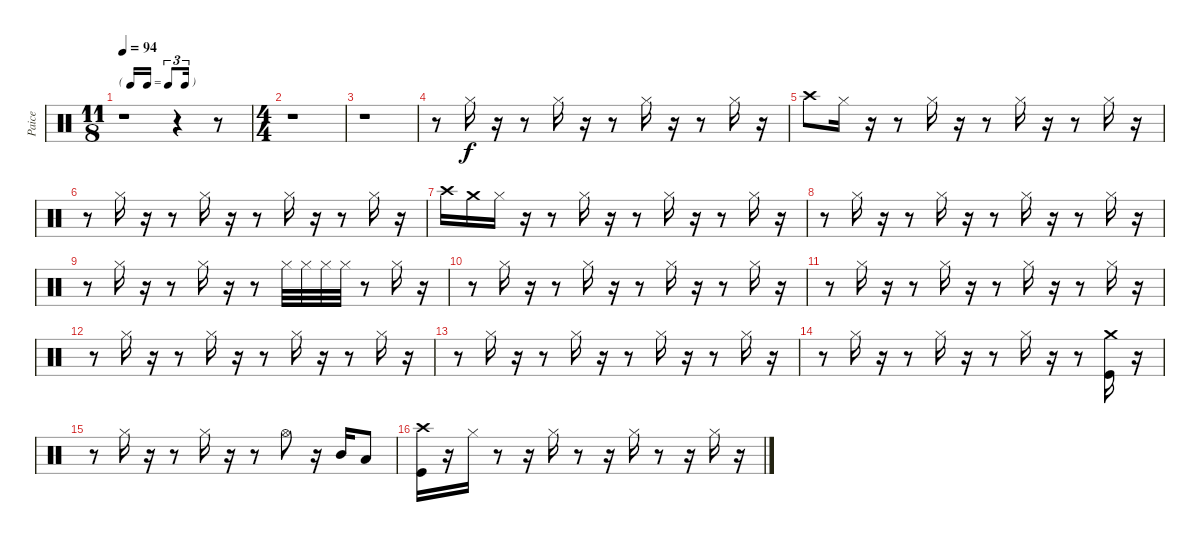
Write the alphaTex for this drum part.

\track ("Paice" "Paice") {instrument percussion}
\staff {score}
\articulation defaults
\ts (11 8)
\tf triplet16th
\tempo 94
\clef neutral
\ks c
r.1{dy f} r.4 r.8 |
\ts (4 4)
r.1 |
r.1 |
r.8 "Hi-Hat (closed)".16 r.16 r.8 "Hi-Hat (closed)".16 r.16 r.8 "Hi-Hat (closed)".16 r.16 r.8 "Hi-Hat (closed)".16 r.16 |
"Crash high (hit)".8 "Hi-Hat (closed)".16 r.16 r.8 "Hi-Hat (closed)".16 r.16 r.8 "Hi-Hat (closed)".16 r.16 r.8 "Hi-Hat (closed)".16 r.16 |
r.8 "Hi-Hat (closed)".16 r.16 r.8 "Hi-Hat (closed)".16 r.16 r.8 "Hi-Hat (closed)".16 r.16 r.8 "Hi-Hat (closed)".16 r.16 |
"Crash high (hit)".16 "Crash medium (hit)".16 "Hi-Hat (closed)".16 r.16 r.8 "Hi-Hat (closed)".16 r.16 r.8 "Hi-Hat (closed)".16 r.16 r.8 "Hi-Hat (closed)".16 r.16 |
r.8 "Hi-Hat (closed)".16 r.16 r.8 "Hi-Hat (closed)".16 r.16 r.8 "Hi-Hat (closed)".16 r.16 r.8 "Hi-Hat (closed)".16 r.16 |
r.8 "Hi-Hat (closed)".16 r.16 r.8 "Hi-Hat (closed)".16 r.16 r.8 "Hi-Hat (closed)".32 "Hi-Hat (closed)".32 "Hi-Hat (closed)".32 "Hi-Hat (closed)".32 r.8 "Hi-Hat (closed)".16 r.16 |
r.8 "Hi-Hat (closed)".16 r.16 r.8 "Hi-Hat (closed)".16 r.16 r.8 "Hi-Hat (closed)".16 r.16 r.8 "Hi-Hat (closed)".16 r.16 |
r.8 "Hi-Hat (closed)".16 r.16 r.8 "Hi-Hat (closed)".16 r.16 r.8 "Hi-Hat (closed)".16 r.16 r.8 "Hi-Hat (closed)".16 r.16 |
r.8 "Hi-Hat (closed)".16 r.16 r.8 "Hi-Hat (closed)".16 r.16 r.8 "Hi-Hat (closed)".16 r.16 r.8 "Hi-Hat (closed)".16 r.16 |
r.8 "Hi-Hat (closed)".16 r.16 r.8 "Hi-Hat (closed)".16 r.16 r.8 "Hi-Hat (closed)".16 r.16 r.8 "Hi-Hat (closed)".16 r.16 |
r.8 "Hi-Hat (closed)".16 r.16 r.8 "Hi-Hat (closed)".16 r.16 r.8 "Hi-Hat (closed)".16 r.16 r.8 ("Crash medium (hit)" "Kick (hit)").16 r.16 |
r.8 "Hi-Hat (closed)".16 r.16 r.8 "Hi-Hat (closed)".16 r.16 r.8 "Hi-Hat (open)".8 r.16 "Mid Tom (hit)".16 "Low Tom (hit)".8 |
("Crash high (hit)" "Kick (hit)").16 r.16 "Hi-Hat (closed)".16 r.8 r.16 "Hi-Hat (closed)".16 r.8 r.16 "Hi-Hat (closed)".16 r.8 r.16 "Hi-Hat (closed)".16 r.16
